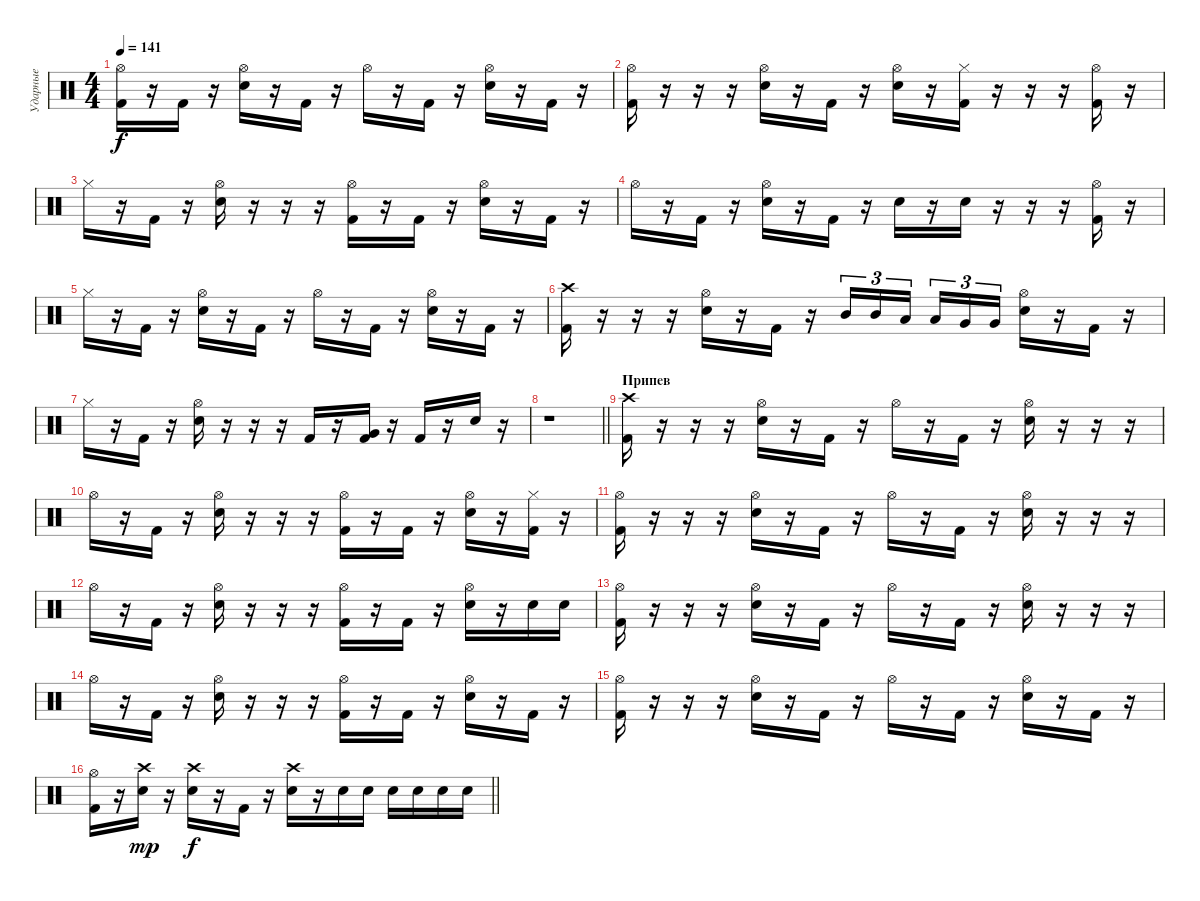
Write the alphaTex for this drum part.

\track ("Ударные" "Ударные") {instrument percussion}
\staff {score}
\articulation defaults
\ts (4 4)
\section ("" "")
\tempo 141
\clef neutral
\ks c
("Hi-Hat (open)" "Kick (hit) 2").16{dy f} r.16 "Kick (hit) 2".16 r.16 ("Hi-Hat (open)" "Electric Snare (hit)").16 r.16 "Kick (hit) 2".16 r.16 "Hi-Hat (open)".16 r.16 "Kick (hit) 2".16 r.16 ("Hi-Hat (open)" "Electric Snare (hit)").16 r.16 "Kick (hit) 2".16 r.16 |
("Hi-Hat (open)" "Kick (hit) 2").16 r.16 r.16 r.16 ("Hi-Hat (open)" "Electric Snare (hit)").16 r.16 "Kick (hit) 2".16 r.16 ("Hi-Hat (open)" "Electric Snare (hit)").16 r.16 ("Hi-Hat (closed)" "Kick (hit) 2").16 r.16 r.16 r.16 ("Hi-Hat (open)" "Kick (hit) 2").16 r.16 |
"Hi-Hat (closed)".16 r.16 "Kick (hit) 2".16 r.16 ("Hi-Hat (open)" "Electric Snare (hit)").16 r.16 r.16 r.16 ("Hi-Hat (open)" "Kick (hit) 2").16 r.16 "Kick (hit) 2".16 r.16 ("Hi-Hat (open)" "Electric Snare (hit)").16 r.16 "Kick (hit) 2".16 r.16 |
"Hi-Hat (open)".16 r.16 "Kick (hit) 2".16 r.16 ("Hi-Hat (open)" "Electric Snare (hit)").16 r.16 "Kick (hit) 2".16 r.16 "Electric Snare (hit)".16 r.16 "Electric Snare (hit)".16 r.16 r.16 r.16 ("Hi-Hat (open)" "Kick (hit) 2").16 r.16 |
"Hi-Hat (closed)".16 r.16 "Kick (hit) 2".16 r.16 ("Hi-Hat (open)" "Electric Snare (hit)").16 r.16 "Kick (hit) 2".16 r.16 "Hi-Hat (open)".16 r.16 "Kick (hit) 2".16 r.16 ("Hi-Hat (open)" "Electric Snare (hit)").16 r.16 "Kick (hit) 2".16 r.16 |
("Crash high (hit)" "Kick (hit) 2").16 r.16 r.16 r.16 ("Hi-Hat (open)" "Electric Snare (hit)").16 r.16 "Kick (hit) 2".16 r.16 "Mid Tom (hit)".16{tu (3 2)} "Mid Tom (hit)".16{tu (3 2)} "Low Tom (hit)".16{tu (3 2) beam splitsecondary} "Low Tom (hit)".16{tu (3 2)} "Very Low Tom (hit)".16{tu (3 2)} "Very Low Tom (hit)".16{tu (3 2)} ("Hi-Hat (open)" "Electric Snare (hit)").16 r.16 "Kick (hit) 2".16 r.16 |
"Hi-Hat (closed)".16 r.16 "Kick (hit) 2".16 r.16 ("Hi-Hat (open)" "Electric Snare (hit)").16 r.16 r.16 r.16 "Kick (hit) 2".16 r.16 ("Very Low Tom (hit)" "Kick (hit) 2").16 r.16 "Kick (hit) 2".16 r.16 "Electric Snare (hit)".16 r.16 |
\barLineRight lightlight
r.1 |
\section ("" "Припев")
("Crash high (hit)" "Kick (hit) 2").16 r.16 r.16 r.16 ("Hi-Hat (open)" "Electric Snare (hit)").16 r.16 "Kick (hit) 2".16 r.16 "Hi-Hat (open)".16 r.16 "Kick (hit) 2".16 r.16 ("Hi-Hat (open)" "Electric Snare (hit)").16 r.16 r.16 r.16 |
"Hi-Hat (open)".16 r.16 "Kick (hit) 2".16 r.16 ("Hi-Hat (open)" "Electric Snare (hit)").16 r.16 r.16 r.16 ("Hi-Hat (open)" "Kick (hit) 2").16 r.16 "Kick (hit) 2".16 r.16 ("Hi-Hat (open)" "Electric Snare (hit)").16 r.16 ("Hi-Hat (closed)" "Kick (hit) 2").16 r.16 |
("Hi-Hat (open)" "Kick (hit) 2").16 r.16 r.16 r.16 ("Hi-Hat (open)" "Electric Snare (hit)").16 r.16 "Kick (hit) 2".16 r.16 "Hi-Hat (open)".16 r.16 "Kick (hit) 2".16 r.16 ("Hi-Hat (open)" "Electric Snare (hit)").16 r.16 r.16 r.16 |
"Hi-Hat (open)".16 r.16 "Kick (hit) 2".16 r.16 ("Hi-Hat (open)" "Electric Snare (hit)").16 r.16 r.16 r.16 ("Hi-Hat (open)" "Kick (hit) 2").16 r.16 "Kick (hit) 2".16 r.16 ("Hi-Hat (open)" "Electric Snare (hit)").16 r.16 "Electric Snare (hit)".16 "Electric Snare (hit)".16 |
("Hi-Hat (open)" "Kick (hit) 2").16 r.16 r.16 r.16 ("Hi-Hat (open)" "Electric Snare (hit)").16 r.16 "Kick (hit) 2".16 r.16 "Hi-Hat (open)".16 r.16 "Kick (hit) 2".16 r.16 ("Hi-Hat (open)" "Electric Snare (hit)").16 r.16 r.16 r.16 |
"Hi-Hat (open)".16 r.16 "Kick (hit) 2".16 r.16 ("Hi-Hat (open)" "Electric Snare (hit)").16 r.16 r.16 r.16 ("Hi-Hat (open)" "Kick (hit) 2").16 r.16 "Kick (hit) 2".16 r.16 ("Hi-Hat (open)" "Electric Snare (hit)").16 r.16 "Kick (hit) 2".16 r.16 |
("Hi-Hat (open)" "Kick (hit) 2").16 r.16 r.16 r.16 ("Hi-Hat (open)" "Electric Snare (hit)").16 r.16 "Kick (hit) 2".16 r.16 "Hi-Hat (open)".16 r.16 "Kick (hit) 2".16 r.16 ("Hi-Hat (open)" "Electric Snare (hit)").16 r.16 "Kick (hit) 2".16 r.16 |
\barLineRight lightlight
("Hi-Hat (open)" "Kick (hit) 2").16 r.16 ("Crash high (hit)" "Electric Snare (hit)").16{dy mp} r.16 ("Crash high (hit)" "Electric Snare (hit)").16{dy f} r.16 "Kick (hit) 2".16 r.16 ("Crash high (hit)" "Electric Snare (hit)").16 r.16 "Electric Snare (hit)".16 "Electric Snare (hit)".16 "Electric Snare (hit)".16 "Electric Snare (hit)".16 "Electric Snare (hit)".16 "Electric Snare (hit)".16
